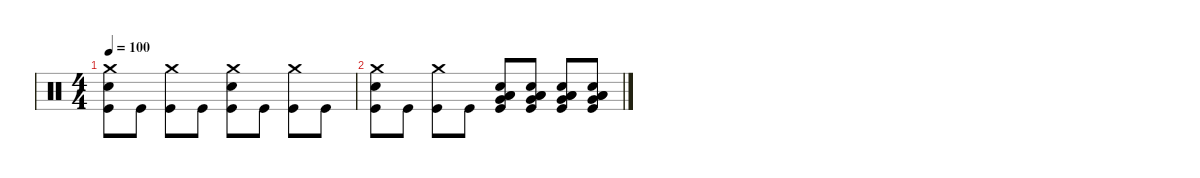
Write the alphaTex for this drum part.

\defaultSystemsLayout 4
\hideDynamics
\bracketExtendMode nobrackets
\singleTrackTrackNamePolicy hidden
\multiTrackTrackNamePolicy hidden
\firstSystemTrackNameMode fullname
\otherSystemsTrackNameOrientation horizontal
\track ("Drumkit" "drm.") {instrument percussion}
\staff {score}
\articulation defaults
\ts (4 4)
\tempo 100
\clef neutral
\ks c
("Kick (hit)" "Crash medium (hit)" "Snare (hit) 2").8{dy mf beam Down} "Kick (hit)".8{beam Down} ("Kick (hit)" "Crash medium (hit)").8{beam Down} "Kick (hit)".8{beam Down} ("Kick (hit)" "Snare (hit) 2" "Crash medium (hit)").8{beam Down} "Kick (hit)".8{beam Down} ("Kick (hit)" "Crash medium (hit)").8{beam Down} "Kick (hit)".8{beam Down} |
("Kick (hit)" "Crash medium (hit)" "Snare (hit) 2").8{beam Down} "Kick (hit)".8{beam Down} ("Kick (hit)" "Crash medium (hit)").8{beam Down} "Kick (hit)".8{beam Down} ("Kick (hit)" "Low Floor Tom (hit)" "Very Low Tom (hit)" "Low Tom (hit)" "Snare (hit) 2").8{beam Up} ("Snare (hit) 2" "Low Tom (hit)" "Very Low Tom (hit)" "Low Floor Tom (hit)" "Kick (hit)").8{beam Up} ("Kick (hit)" "Low Floor Tom (hit)" "Very Low Tom (hit)" "Low Tom (hit)" "Snare (hit) 2").8{beam Up} ("Snare (hit) 2" "Low Tom (hit)" "Very Low Tom (hit)" "Low Floor Tom (hit)" "Kick (hit)").8{beam Up}
